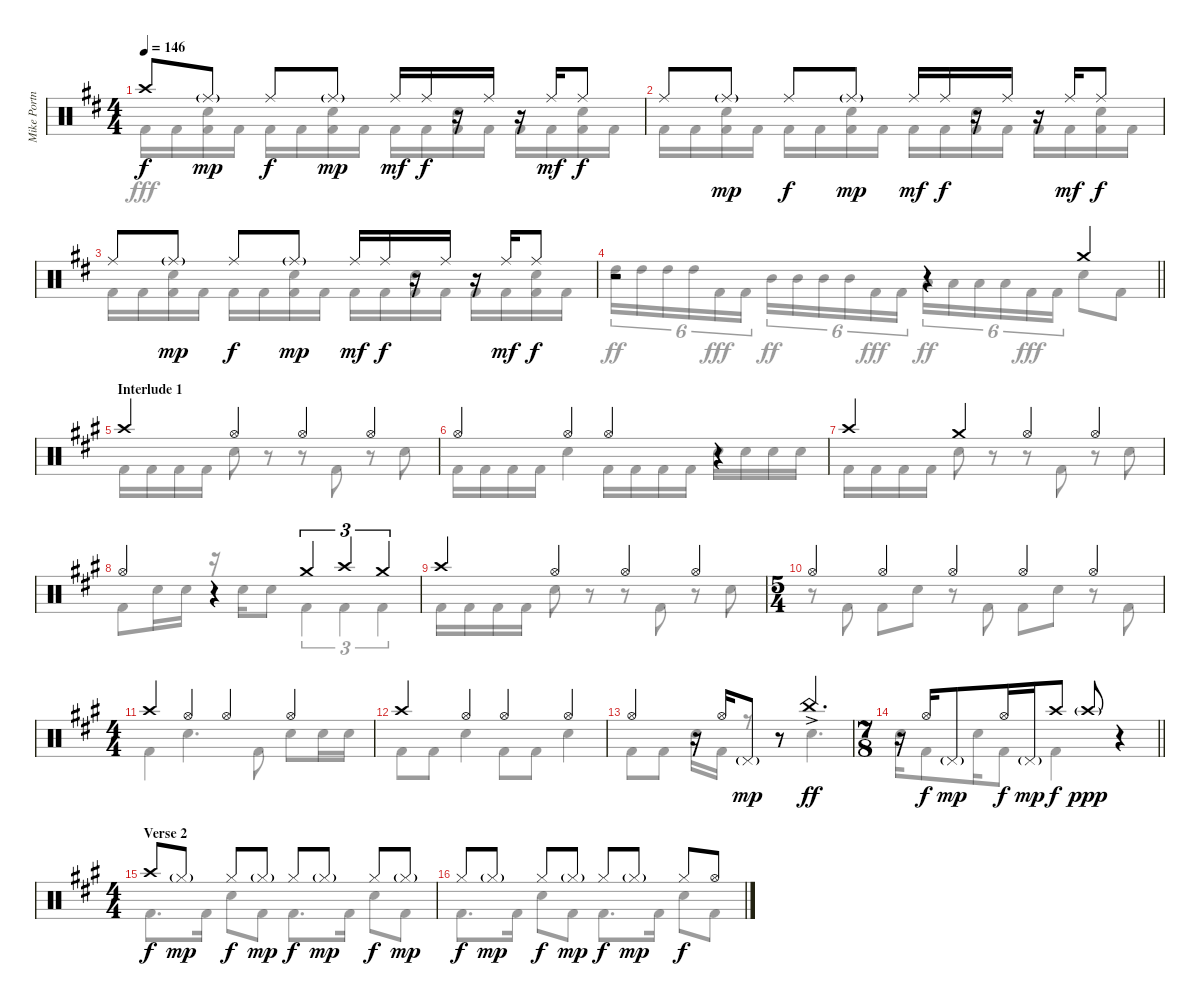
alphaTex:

\track ("Mike Portnoy Drums" "Mike Portn") {instrument percussion}
\staff {score}
\articulation defaults
\voice
\ts (4 4)
\tempo 146
\clef neutral
\ks bminor "Crash high (hit)".8{dy f} "Ride (middle)"{g}.8{dy mp} "Ride (middle)".8{dy f} "Ride (middle)"{g}.8{dy mp} "Ride (middle)".16{dy mf} "Ride (middle)".16{dy f}
r.16 "Ride (middle)".16 r.16 "Ride (middle)".16{dy mf} "Ride (middle)".8{dy f} |
"Ride (middle)".8 "Ride (middle)"{g}.8{dy mp} "Ride (middle)".8{dy f} "Ride (middle)"{g}.8{dy mp} "Ride (middle)".16{dy mf} "Ride (middle)".16{dy f} r.16 "Ride (middle)".16 r.16 "Ride (middle)".16{dy mf} "Ride (middle)".8{dy f} |
"Ride (middle)".8 "Ride (middle)"{g}.8{dy mp} "Ride (middle)".8{dy f} "Ride (middle)"{g}.8{dy mp} "Ride (middle)".16{dy mf} "Ride (middle)".16{dy f} r.16 "Ride (middle)".16 r.16 "Ride (middle)".16{dy mf} "Ride (middle)".8{dy f} |
\barLineRight lightlight
r.2 r.4 "Crash medium (hit)".4 |
\section ("" "Interlude 1")
\ks f#minor "Crash high (hit)".4 "Hi-Hat (open)".4 "Hi-Hat (open)".4 "Hi-Hat (open)".4
|
"Hi-Hat (open)".4 "Hi-Hat (open)".4 "Hi-Hat (open)".4 r.4 |
"Crash high (hit)".4 "Crash medium (hit)".4 "Hi-Hat (open)".4 "Hi-Hat (open)".4 |
"Hi-Hat (open)".4 r.4 "Crash medium (hit)".4{tu (3 2)} "Crash high (hit)".4{tu (3 2)} "Crash medium (hit)".4{tu (3 2)} |
"Crash high (hit)".4 "Hi-Hat (open)".4 "Hi-Hat (open)".4 "Hi-Hat (open)".4 |
\ts (5 4)
"Hi-Hat (open)".4 "Hi-Hat (open)".4 "Hi-Hat (open)".4 "Hi-Hat (open)".4 "Hi-Hat (open)".4 |
\ts (4 4)
"Crash high (hit)".4 "Hi-Hat (open)".4 "Hi-Hat (open)".4 "Hi-Hat (open)".4 |
"Crash high (hit)".4 "Hi-Hat (open)".4 "Hi-Hat (open)".4 "Hi-Hat (open)".4 |
"Hi-Hat (open)".4 r.16 "Hi-Hat (open)".16 "Pedal Hi-Hat (hit)"{g}.8{dy mp} r.8 "China (hit)"{ac}.4{d dy ff} |
\ts (7 8)
\barLineRight lightlight
r.16 "Hi-Hat (open)".16{dy f} "Pedal Hi-Hat (hit)"{g}.8{dy mp} "Hi-Hat (open)".16{dy f} "Pedal Hi-Hat (hit)"{g}.16{dy mp} "Crash high (hit)".8{dy f} "Crash high (hit)"{g}.8{dy ppp} r.4 |
\ts (4 4)
\section ("" "Verse 2")
"Crash high (hit)".8{dy f} "Hi-Hat (closed)"{g}.8{dy mp} "Hi-Hat (closed)".8{dy f} "Hi-Hat (closed)"{g}.8{dy mp} "Hi-Hat (closed)".8{dy f} "Hi-Hat (closed)"{g}.8{dy mp} "Hi-Hat (closed)".8{dy f} "Hi-Hat (closed)"{g}.8{dy mp} |
"Hi-Hat (closed)".8{dy f} "Hi-Hat (closed)"{g}.8{dy mp} "Hi-Hat (closed)".8{dy f} "Hi-Hat (closed)"{g}.8{dy mp} "Hi-Hat (closed)".8{dy f} "Hi-Hat (closed)"{g}.8{dy mp} "Hi-Hat (closed)".8{dy f} "Hi-Hat (open)".8
\voice
\clef neutral
\ottava regular
\simile none
\ks bminor "Kick (hit) 2".16{dy fff} "Kick (hit) 2".16
("Snare (hit) 2" "Kick (hit) 2").16 "Kick (hit) 2".16 "Kick (hit) 2".16 "Kick (hit) 2".16 ("Snare (hit) 2" "Kick (hit) 2").16 "Kick (hit) 2".16 "Kick (hit) 2".16 "Kick (hit) 2".16 ("Snare (hit) 2" "Kick (hit) 2").16 "Kick (hit) 2".16 "Kick (hit) 2".16 "Kick (hit) 2".16 ("Snare (hit) 2" "Kick (hit) 2").16 "Kick (hit) 2".16 |
"Kick (hit) 2".16 "Kick (hit) 2".16 ("Snare (hit) 2" "Kick (hit) 2").16 "Kick (hit) 2".16 "Kick (hit) 2".16 "Kick (hit) 2".16 ("Snare (hit) 2" "Kick (hit) 2").16 "Kick (hit) 2".16 "Kick (hit) 2".16 "Kick (hit) 2".16 ("Snare (hit) 2" "Kick (hit) 2").16 "Kick (hit) 2".16 "Kick (hit) 2".16 "Kick (hit) 2".16 ("Snare (hit) 2" "Kick (hit) 2").16 "Kick (hit) 2".16 |
"Kick (hit) 2".16 "Kick (hit) 2".16 ("Snare (hit) 2" "Kick (hit) 2").16 "Kick (hit) 2".16 "Kick (hit) 2".16 "Kick (hit) 2".16 ("Snare (hit) 2" "Kick (hit) 2").16 "Kick (hit) 2".16 "Kick (hit) 2".16 "Kick (hit) 2".16 ("Snare (hit) 2" "Kick (hit) 2").16 "Kick (hit) 2".16 "Kick (hit) 2".16 "Kick (hit) 2".16 ("Snare (hit) 2" "Kick (hit) 2").16 "Kick (hit) 2".16 |
\barLineRight lightlight "High Tom (hit)".16{tu (6 4) dy ff} "High Tom (hit)".16{tu (6 4)} "High Tom (hit)".16{tu (6 4)} "High Tom (hit)".16{tu (6 4)} "Kick (hit) 2".16{tu (6 4) dy fff} "Kick (hit) 2".16{tu (6 4)} "Mid Tom (hit)".16{tu (6 4) dy ff} "Mid Tom (hit)".16{tu (6 4)} "Mid Tom (hit)".16{tu (6 4)} "Mid Tom (hit)".16{tu (6 4)} "Kick (hit) 2".16{tu (6 4) dy fff} "Kick (hit) 2".16{tu (6 4)} "Low Tom (hit)".16{tu (6 4) dy ff} "Low Tom (hit)".16{tu (6 4)} "Low Tom (hit)".16{tu (6 4)} "Low Tom (hit)".16{tu (6 4)} "Kick (hit) 2".16{tu (6 4) dy fff} "Kick (hit) 2".16{tu (6 4)} "Snare (hit) 2".8 "Kick (hit) 2".8
|
\ks f#minor "Kick (hit) 2".16 "Kick (hit) 2".16 "Kick (hit) 2".16 "Kick (hit) 2".16 "Snare (hit) 2".8
r.8 r.8 "Kick (hit) 2".8 r.8 "Snare (hit) 2".8 |
"Kick (hit) 2".16 "Kick (hit) 2".16 "Kick (hit) 2".16 "Kick (hit) 2".16 "Snare (hit) 2".4 "Kick (hit) 2".16 "Kick (hit) 2".16 "Kick (hit) 2".16 "Kick (hit) 2".16 "Snare (hit) 2".16 "Snare (hit) 2".16 "Snare (hit) 2".16 "Snare (hit) 2".16 |
"Kick (hit) 2".16 "Kick (hit) 2".16 "Kick (hit) 2".16 "Kick (hit) 2".16 "Snare (hit) 2".8 r.8 r.8 "Kick (hit) 2".8 r.8 "Snare (hit) 2".8 |
"Kick (hit) 2".8 "Snare (hit) 2".16 "Snare (hit) 2".16 r.16 "Snare (hit) 2".16 "Snare (hit) 2".8 "Kick (hit) 2".4{tu (3 2)} "Kick (hit) 2".4{tu (3 2)} "Kick (hit) 2".4{tu (3 2)} |
"Kick (hit) 2".16 "Kick (hit) 2".16 "Kick (hit) 2".16 "Kick (hit) 2".16 "Snare (hit) 2".8 r.8 r.8 "Kick (hit) 2".8 r.8 "Snare (hit) 2".8 |
r.8 "Kick (hit) 2".8 "Kick (hit) 2".8 "Snare (hit) 2".8 r.8 "Kick (hit) 2".8 "Kick (hit) 2".8 "Snare (hit) 2".8 r.8 "Kick (hit) 2".8 |
"Kick (hit) 2".4 "Snare (hit) 2".4{d} "Kick (hit) 2".8 "Snare (hit) 2".8 "Snare (hit) 2".16 "Snare (hit) 2".16 |
"Kick (hit) 2".8 "Kick (hit) 2".8 "Snare (hit) 2".4 "Kick (hit) 2".8 "Kick (hit) 2".8 "Snare (hit) 2".4 |
"Kick (hit) 2".8 "Kick (hit) 2".8 "Snare (hit) 2".16 "Kick (hit) 2".16 r.8 r.8 "Snare (hit) 2".4{d} |
\barLineRight lightlight "Snare (hit) 2".16 "Kick (hit) 2".8 "Snare (hit) 2".16 "Kick (hit) 2".8 "Kick (hit) 2".4
r.4 |
"Kick (hit) 2".8{d} "Kick (hit) 2".16 "Snare (hit) 2".8 "Kick (hit) 2".8 "Kick (hit) 2".8{d} "Kick (hit) 2".16 "Snare (hit) 2".8 "Kick (hit) 2".8 |
"Kick (hit) 2".8{d} "Kick (hit) 2".16 "Snare (hit) 2".8 "Kick (hit) 2".8 "Kick (hit) 2".8{d} "Kick (hit) 2".16 "Snare (hit) 2".8 "Kick (hit) 2".8
